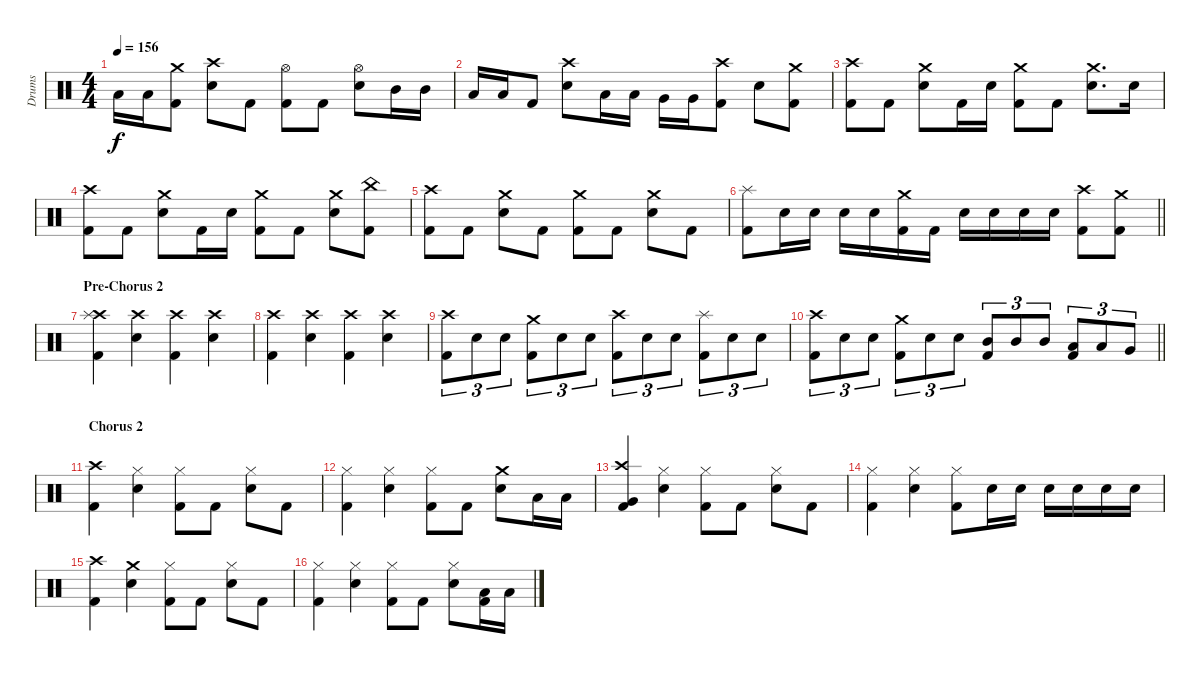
\track ("Drums" "Drums") {instrument percussion}
\staff {score}
\articulation defaults
\ts (4 4)
\tempo 156
\clef neutral
\ks c "Low Tom (hit)".16{dy f} "Low Tom (hit)".16
("Crash medium (hit)" "Kick (hit) 2").8 ("Crash high (hit)" "Snare (hit) 2").8 "Kick (hit) 2".8 ("Hi-Hat (open)" "Kick (hit) 2").8 "Kick (hit) 2".8 ("Hi-Hat (open)" "Snare (hit) 2").8 "Mid Tom (hit)".16 "Mid Tom (hit)".16 |
"Low Tom (hit)".16 "Low Tom (hit)".16 "Kick (hit) 2".8 ("Crash high (hit)" "Snare (hit) 2").8 "Low Tom (hit)".16 "Low Tom (hit)".16 "Very Low Tom (hit)".16 "Very Low Tom (hit)".16 ("Crash high (hit)" "Kick (hit) 2").8 "Snare (hit) 2".8 ("Crash medium (hit)" "Kick (hit) 2").8 |
("Crash high (hit)" "Kick (hit) 2").8 "Kick (hit) 2".8 ("Crash medium (hit)" "Snare (hit) 2").8 "Kick (hit) 2".16 "Snare (hit) 2".16 ("Crash medium (hit)" "Kick (hit) 2").8 "Kick (hit) 2".8 ("Crash medium (hit)" "Snare (hit) 2").8{d} "Snare (hit) 2".16 |
("Crash high (hit)" "Kick (hit) 2").8 "Kick (hit) 2".8 ("Crash medium (hit)" "Snare (hit) 2").8 "Kick (hit) 2".16 "Snare (hit) 2".16 ("Crash medium (hit)" "Kick (hit) 2").8 "Kick (hit) 2".8 ("Crash medium (hit)" "Snare (hit) 2").8 ("China (hit)" "Kick (hit) 2").8 |
("Crash high (hit)" "Kick (hit) 2").8 "Kick (hit) 2".8 ("Crash medium (hit)" "Snare (hit) 2").8 "Kick (hit) 2".8 ("Crash medium (hit)" "Kick (hit) 2").8 "Kick (hit) 2".8 ("Crash medium (hit)" "Snare (hit) 2").8 "Kick (hit) 2".8 |
\barLineRight lightlight
("Splash (hit)" "Kick (hit) 2").8 "Snare (hit) 2".16 "Snare (hit) 2".16 "Snare (hit) 2".16 "Snare (hit) 2".16 ("Crash medium (hit)" "Kick (hit) 2").16 "Kick (hit) 2".16 "Snare (hit) 2".16 "Snare (hit) 2".16 "Snare (hit) 2".16 "Snare (hit) 2".16 ("Crash high (hit)" "Kick (hit) 2").8 ("Crash medium (hit)" "Kick (hit) 2").8 |
\section ("" "Pre-Chorus 2")
("Crash high (hit)" "Splash (hit)" "Kick (hit) 2").4 ("Crash high (hit)" "Snare (hit) 2").4 ("Crash high (hit)" "Kick (hit) 2").4 ("Crash high (hit)" "Snare (hit) 2").4 |
("Crash high (hit)" "Kick (hit) 2").4 ("Crash high (hit)" "Snare (hit) 2").4 ("Crash high (hit)" "Kick (hit) 2").4 ("Crash high (hit)" "Snare (hit) 2").4 |
("Crash high (hit)" "Kick (hit) 2").8{tu (3 2)} "Snare (hit) 2".8{tu (3 2)} "Snare (hit) 2".8{tu (3 2)} ("Crash medium (hit)" "Kick (hit) 2").8{tu (3 2)} "Snare (hit) 2".8{tu (3 2)} "Snare (hit) 2".8{tu (3 2)} ("Crash high (hit)" "Kick (hit) 2").8{tu (3 2)} "Snare (hit) 2".8{tu (3 2)} "Snare (hit) 2".8{tu (3 2)} ("Splash (hit)" "Kick (hit) 2").8{tu (3 2)} "Snare (hit) 2".8{tu (3 2)} "Snare (hit) 2".8{tu (3 2)} |
\barLineRight lightlight
("Crash high (hit)" "Kick (hit) 2").8{tu (3 2)} "Snare (hit) 2".8{tu (3 2)} "Snare (hit) 2".8{tu (3 2)} ("Crash medium (hit)" "Kick (hit) 2").8{tu (3 2)} "Snare (hit) 2".8{tu (3 2)} "Snare (hit) 2".8{tu (3 2)} ("Mid Tom (hit)" "Kick (hit) 2").8{tu (3 2)} "Mid Tom (hit)".8{tu (3 2)} "Mid Tom (hit)".8{tu (3 2)} ("Low Tom (hit)" "Kick (hit) 2").8{tu (3 2)} "Low Tom (hit)".8{tu (3 2)} "Very Low Tom (hit)".8{tu (3 2)} |
\section ("" "Chorus 2")
("Crash high (hit)" "Kick (hit) 2").4 ("Hi-Hat (closed)" "Snare (hit) 2").4 ("Hi-Hat (closed)" "Kick (hit) 2").8 "Kick (hit) 2".8 ("Hi-Hat (closed)" "Snare (hit) 2").8 "Kick (hit) 2".8 |
("Hi-Hat (closed)" "Kick (hit) 2").4 ("Hi-Hat (closed)" "Snare (hit) 2").4 ("Hi-Hat (closed)" "Kick (hit) 2").8 "Kick (hit) 2".8 ("Crash medium (hit)" "Snare (hit) 2").8 "Low Tom (hit)".16 "Low Tom (hit)".16 |
("Crash high (hit)" "Very Low Tom (hit)" "Kick (hit) 2").4 ("Hi-Hat (closed)" "Snare (hit) 2").4 ("Hi-Hat (closed)" "Kick (hit) 2").8 "Kick (hit) 2".8 ("Hi-Hat (closed)" "Snare (hit) 2").8 "Kick (hit) 2".8 |
("Hi-Hat (closed)" "Kick (hit) 2").4 ("Hi-Hat (closed)" "Snare (hit) 2").4 ("Hi-Hat (closed)" "Kick (hit) 2").8 "Snare (hit) 2".16 "Snare (hit) 2".16 "Snare (hit) 2".16 "Snare (hit) 2".16 "Snare (hit) 2".16 "Snare (hit) 2".16 |
("Crash high (hit)" "Kick (hit) 2").4 ("Crash medium (hit)" "Snare (hit) 2").4 ("Hi-Hat (closed)" "Kick (hit) 2").8 "Kick (hit) 2".8 ("Hi-Hat (closed)" "Snare (hit) 2").8 "Kick (hit) 2".8 |
("Hi-Hat (closed)" "Kick (hit) 2").4 ("Hi-Hat (closed)" "Snare (hit) 2").4 ("Hi-Hat (closed)" "Kick (hit) 2").8 "Kick (hit) 2".8 ("Hi-Hat (closed)" "Snare (hit) 2").8 ("Low Tom (hit)" "Kick (hit) 2").16 "Low Tom (hit)".16
